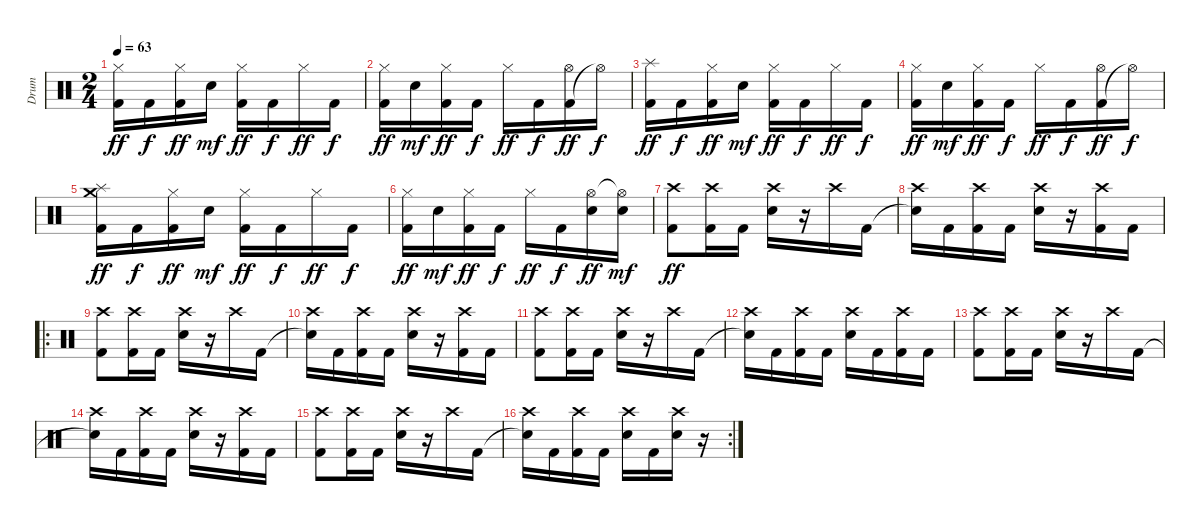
\track ("Drum" "Drum") {instrument percussion}
\staff {score}
\articulation defaults
\ts (2 4)
\tempo 63
\clef neutral
\ks c
("Kick (hit) 2" "Hi-Hat (closed)").16{dy ff} "Kick (hit) 2".16{dy f} ("Kick (hit) 2" "Hi-Hat (closed)").16{dy ff} "Snare (hit) 2".16{dy mf} ("Kick (hit) 2" "Hi-Hat (closed)").16{dy ff} "Kick (hit) 2".16{dy f} "Hi-Hat (closed)".16{dy ff} "Kick (hit) 2".16{dy f} |
("Kick (hit) 2" "Hi-Hat (closed)").16{dy ff} "Snare (hit) 2".16{dy mf} ("Kick (hit) 2" "Hi-Hat (closed)").16{dy ff} "Kick (hit) 2".16{dy f} "Hi-Hat (closed)".16{dy ff} "Kick (hit) 2".16{dy f} ("Kick (hit) 2" "Hi-Hat (open)").16{dy ff} "Hi-Hat (open)"{t}.16{dy f} |
("Kick (hit) 2" "Splash (hit)").16{dy ff} "Kick (hit) 2".16{dy f} ("Kick (hit) 2" "Hi-Hat (closed)").16{dy ff} "Snare (hit) 2".16{dy mf} ("Kick (hit) 2" "Hi-Hat (closed)").16{dy ff} "Kick (hit) 2".16{dy f} "Hi-Hat (closed)".16{dy ff} "Kick (hit) 2".16{dy f} |
("Kick (hit) 2" "Hi-Hat (closed)").16{dy ff} "Snare (hit) 2".16{dy mf} ("Kick (hit) 2" "Hi-Hat (closed)").16{dy ff} "Kick (hit) 2".16{dy f} "Hi-Hat (closed)".16{dy ff} "Kick (hit) 2".16{dy f} ("Kick (hit) 2" "Hi-Hat (open)").16{dy ff} "Hi-Hat (open)"{t}.16{dy f} |
("Kick (hit) 2" "Splash (hit)" "Crash medium (hit)").16{dy ff} "Kick (hit) 2".16{dy f} ("Kick (hit) 2" "Hi-Hat (closed)").16{dy ff} "Snare (hit) 2".16{dy mf} ("Kick (hit) 2" "Hi-Hat (closed)").16{dy ff} "Kick (hit) 2".16{dy f} "Hi-Hat (closed)".16{dy ff} "Kick (hit) 2".16{dy f} |
("Kick (hit) 2" "Hi-Hat (closed)").16{dy ff} "Snare (hit) 2".16{dy mf} ("Kick (hit) 2" "Hi-Hat (closed)").16{dy ff} "Kick (hit) 2".16{dy f} "Hi-Hat (closed)".16{dy ff} "Kick (hit) 2".16{dy f} ("Snare (hit) 2" "Hi-Hat (open)").16{dy ff} ("Snare (hit) 2" "Hi-Hat (open)"{t}).16{dy mf} |
("Kick (hit) 2" "Crash high (hit)").8{dy ff} ("Kick (hit) 2" "Crash high (hit)").16 "Kick (hit) 2".16 ("Snare (hit) 2" "Crash high (hit)").16 r.16 "Crash high (hit)".16 "Kick (hit) 2".16 |
("Snare (hit)"{t} "Crash high (hit)").16 "Kick (hit) 2".16 ("Kick (hit) 2" "Crash high (hit)").16 "Kick (hit) 2".16 ("Snare (hit) 2" "Crash high (hit)").16 r.16 ("Kick (hit) 2" "Crash high (hit)").16 "Kick (hit) 2".16 |
\ro
("Kick (hit) 2" "Crash high (hit)").8 ("Kick (hit) 2" "Crash high (hit)").16 "Kick (hit) 2".16 ("Snare (hit) 2" "Crash high (hit)").16 r.16 "Crash high (hit)".16 "Kick (hit) 2".16 |
("Snare (hit)"{t} "Crash high (hit)").16 "Kick (hit) 2".16 ("Kick (hit) 2" "Crash high (hit)").16 "Kick (hit) 2".16 ("Snare (hit) 2" "Crash high (hit)").16 r.16 ("Kick (hit) 2" "Crash high (hit)").16 "Kick (hit) 2".16 |
("Kick (hit) 2" "Crash high (hit)").8 ("Kick (hit) 2" "Crash high (hit)").16 "Kick (hit) 2".16 ("Snare (hit) 2" "Crash high (hit)").16 r.16 "Crash high (hit)".16 "Kick (hit) 2".16 |
("Snare (hit)"{t} "Crash high (hit)").16 "Kick (hit) 2".16 ("Kick (hit) 2" "Crash high (hit)").16 "Kick (hit) 2".16 ("Snare (hit) 2" "Crash high (hit)").16 "Kick (hit) 2".16 ("Kick (hit) 2" "Crash high (hit)").16 "Kick (hit) 2".16 |
("Kick (hit) 2" "Crash high (hit)").8 ("Kick (hit) 2" "Crash high (hit)").16 "Kick (hit) 2".16 ("Snare (hit) 2" "Crash high (hit)").16 r.16 "Crash high (hit)".16 "Kick (hit) 2".16 |
("Snare (hit)"{t} "Crash high (hit)").16 "Kick (hit) 2".16 ("Kick (hit) 2" "Crash high (hit)").16 "Kick (hit) 2".16 ("Snare (hit) 2" "Crash high (hit)").16 r.16 ("Kick (hit) 2" "Crash high (hit)").16 "Kick (hit) 2".16 |
("Kick (hit) 2" "Crash high (hit)").8 ("Kick (hit) 2" "Crash high (hit)").16 "Kick (hit) 2".16 ("Snare (hit) 2" "Crash high (hit)").16 r.16 "Crash high (hit)".16 "Kick (hit) 2".16 |
\rc 2
("Snare (hit)"{t} "Crash high (hit)").16 "Kick (hit) 2".16 ("Kick (hit) 2" "Crash high (hit)").16 "Kick (hit) 2".16 ("Snare (hit) 2" "Crash high (hit)").16 "Kick (hit) 2".16 ("Snare (hit) 2" "Crash high (hit)").16 r.16
